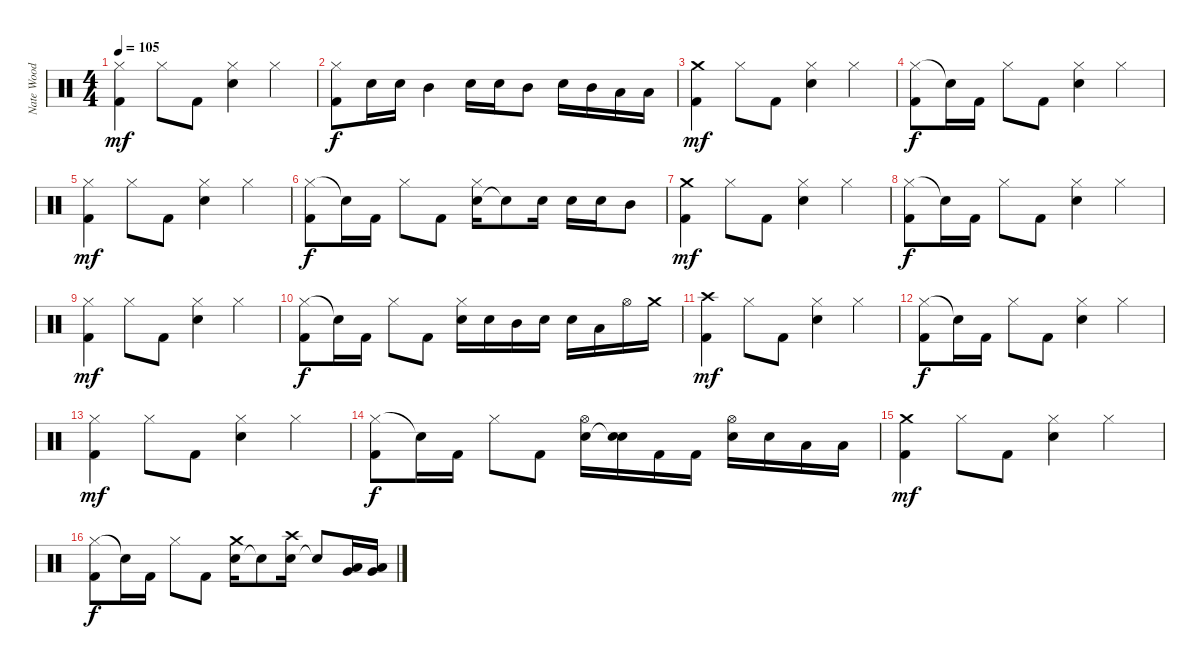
\track ("Nate Wood" "Nate Wood") {instrument percussion}
\staff {score}
\articulation defaults
\ts (4 4)
\tempo 105
\clef neutral
\ks c
("Hi-Hat (closed)" "Kick (hit) 2").4{dy mf} "Hi-Hat (closed)".8 "Kick (hit) 2".8 ("Electric Snare (hit)" "Hi-Hat (closed)").4 "Hi-Hat (closed)".4 |
("Hi-Hat (closed)" "Kick (hit) 2").8{dy f} "Electric Snare (hit)".16 "Electric Snare (hit)".16 "Mid Tom (hit)".4 "Electric Snare (hit)".16 "Electric Snare (hit)".16 "Mid Tom (hit)".8 "Electric Snare (hit)".16 "Mid Tom (hit)".16 "Low Tom (hit)".16 "Low Tom (hit)".16 |
("Crash medium (hit)" "Kick (hit) 2").4{dy mf} "Hi-Hat (closed)".8 "Kick (hit) 2".8 ("Electric Snare (hit)" "Hi-Hat (closed)").4 "Hi-Hat (closed)".4 |
("Hi-Hat (closed)" "Kick (hit) 2").8{dy f} "Snare (hit)"{t}.16 "Kick (hit) 2".16 "Hi-Hat (closed)".8 "Kick (hit) 2".8 ("Electric Snare (hit)" "Hi-Hat (closed)").4 "Hi-Hat (closed)".4 |
("Hi-Hat (closed)" "Kick (hit) 2").4{dy mf} "Hi-Hat (closed)".8 "Kick (hit) 2".8 ("Electric Snare (hit)" "Hi-Hat (closed)").4 "Hi-Hat (closed)".4 |
("Hi-Hat (closed)" "Kick (hit) 2").8{dy f} "Snare (hit)"{t}.16 "Kick (hit) 2".16 "Hi-Hat (closed)".8 "Kick (hit) 2".8 ("Electric Snare (hit)" "Hi-Hat (closed)").16 "Snare (hit)"{t}.8 "Electric Snare (hit)".16 "Electric Snare (hit)".16 "Electric Snare (hit)".16 "Mid Tom (hit)".8 |
("Crash medium (hit)" "Kick (hit) 2").4{dy mf} "Hi-Hat (closed)".8 "Kick (hit) 2".8 ("Electric Snare (hit)" "Hi-Hat (closed)").4 "Hi-Hat (closed)".4 |
("Hi-Hat (closed)" "Kick (hit) 2").8{dy f} "Snare (hit)"{t}.16 "Kick (hit) 2".16 "Hi-Hat (closed)".8 "Kick (hit) 2".8 ("Electric Snare (hit)" "Hi-Hat (closed)").4 "Hi-Hat (closed)".4 |
("Hi-Hat (closed)" "Kick (hit) 2").4{dy mf} "Hi-Hat (closed)".8 "Kick (hit) 2".8 ("Electric Snare (hit)" "Hi-Hat (closed)").4 "Hi-Hat (closed)".4 |
("Hi-Hat (closed)" "Kick (hit) 2").8{dy f} "Snare (hit)"{t}.16 "Kick (hit) 2".16 "Hi-Hat (closed)".8 "Kick (hit) 2".8 ("Electric Snare (hit)" "Hi-Hat (closed)").16 "Electric Snare (hit)".16 "Mid Tom (hit)".16 "Electric Snare (hit)".16 "Electric Snare (hit)".16 "Low Tom (hit)".16 "Hi-Hat (open)".16 "Crash medium (hit)".16 |
("Crash high (hit)" "Kick (hit) 2").4{dy mf} "Hi-Hat (closed)".8 "Kick (hit) 2".8 ("Electric Snare (hit)" "Hi-Hat (closed)").4 "Hi-Hat (closed)".4 |
("Hi-Hat (closed)" "Kick (hit) 2").8{dy f} "Snare (hit)"{t}.16 "Kick (hit) 2".16 "Hi-Hat (closed)".8 "Kick (hit) 2".8 ("Electric Snare (hit)" "Hi-Hat (closed)").4 "Hi-Hat (closed)".4 |
("Hi-Hat (closed)" "Kick (hit) 2").4{dy mf} "Hi-Hat (closed)".8 "Kick (hit) 2".8 ("Electric Snare (hit)" "Hi-Hat (closed)").4 "Hi-Hat (closed)".4 |
("Hi-Hat (closed)" "Kick (hit) 2").8{dy f} "Snare (hit)"{t}.16 "Kick (hit) 2".16 "Hi-Hat (closed)".8 "Kick (hit) 2".8 ("Hi-Hat (open)" "Electric Snare (hit)").16 ("Electric Snare (hit)" "Snare (hit)"{t}).16 "Kick (hit) 2".16 "Kick (hit) 2".16 ("Electric Snare (hit)" "Hi-Hat (open)").16 "Electric Snare (hit)".16 "Low Tom (hit)".16 "Low Tom (hit)".16 |
("Crash medium (hit)" "Kick (hit) 2").4{dy mf} "Hi-Hat (closed)".8 "Kick (hit) 2".8 ("Electric Snare (hit)" "Hi-Hat (closed)").4 "Hi-Hat (closed)".4 |
("Hi-Hat (closed)" "Kick (hit) 2").8{dy f} "Snare (hit)"{t}.16 "Kick (hit) 2".16 "Hi-Hat (closed)".8 "Kick (hit) 2".8 ("Electric Snare (hit)" "Crash medium (hit)").16 "Snare (hit)"{t}.8 ("Electric Snare (hit)" "Crash high (hit)").16 "Snare (hit)"{t}.8 ("Low Tom (hit)" "Very Low Tom (hit)").16 ("Low Tom (hit)" "Very Low Tom (hit)").16
